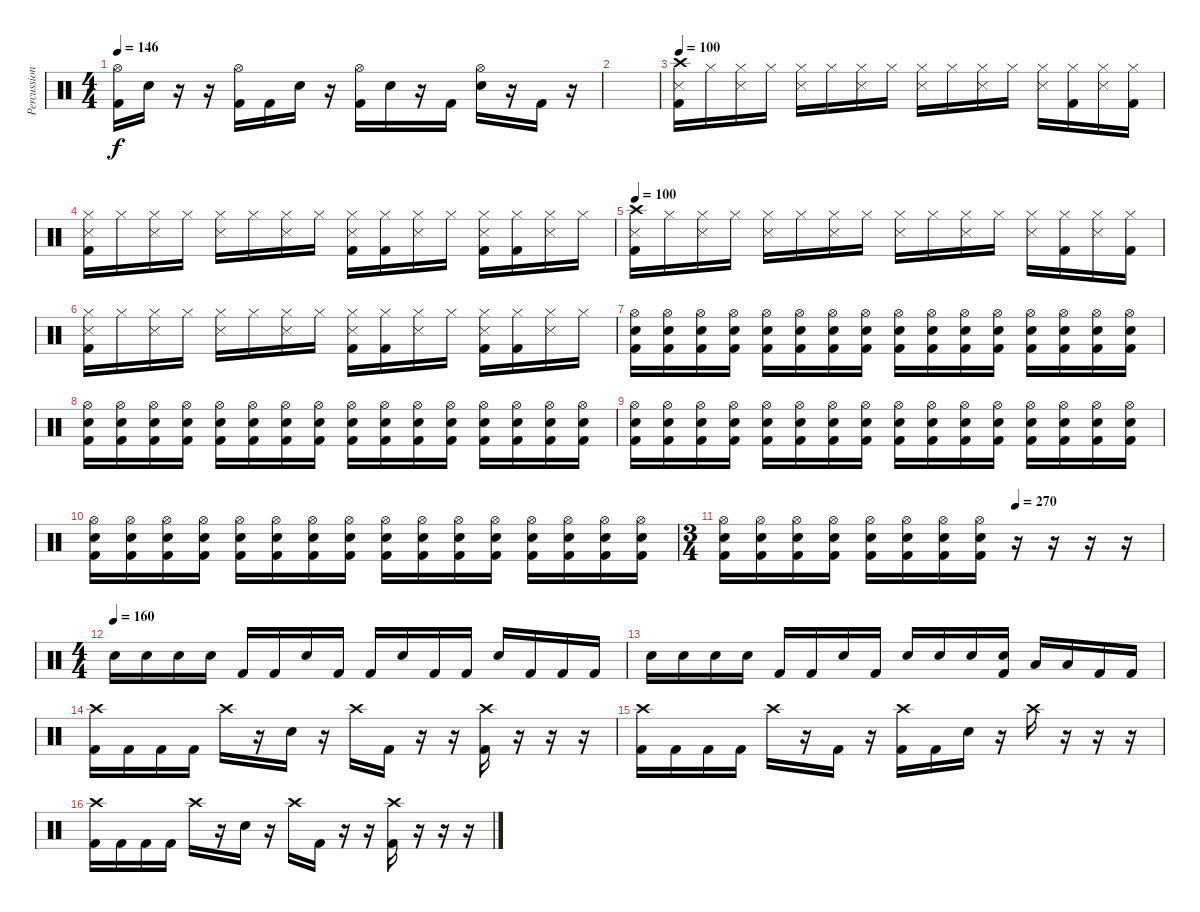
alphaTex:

\track ("Percussion" "Percussion") {instrument percussion}
\staff {score}
\articulation defaults
\ts (4 4)
\tempo 146
\clef neutral
\ks c
("Hi-Hat (open)" "Kick (hit) 2").16{dy f} "Electric Snare (hit)".16 r.16 r.16 ("Hi-Hat (open)" "Kick (hit) 2").16 "Kick (hit) 2".16 "Electric Snare (hit)".16 r.16 ("Hi-Hat (open)" "Kick (hit) 2").16 "Electric Snare (hit)".16 r.16 "Kick (hit) 2".16 ("Hi-Hat (open)" "Electric Snare (hit)").16 r.16 "Kick (hit) 2".16 r.16 |
|
\tempo 100
("Crash high (hit)" "Snare (side stick) 3" "Kick (hit) 2").16 "Hi-Hat (closed)".16 ("Hi-Hat (closed)" "Snare (side stick) 3").16 "Hi-Hat (closed)".16 ("Hi-Hat (closed)" "Snare (side stick) 3").16 "Hi-Hat (closed)".16 ("Hi-Hat (closed)" "Snare (side stick) 3").16 "Hi-Hat (closed)".16 ("Hi-Hat (closed)" "Snare (side stick) 3").16 "Hi-Hat (closed)".16 ("Hi-Hat (closed)" "Snare (side stick) 3").16 "Hi-Hat (closed)".16 ("Hi-Hat (closed)" "Snare (side stick) 3").16 ("Hi-Hat (closed)" "Kick (hit) 2").16 ("Hi-Hat (closed)" "Snare (side stick) 3").16 ("Hi-Hat (closed)" "Kick (hit) 2").16 |
("Hi-Hat (closed)" "Snare (side stick) 3" "Kick (hit) 2").16 "Hi-Hat (closed)".16 ("Hi-Hat (closed)" "Snare (side stick) 3").16 "Hi-Hat (closed)".16 ("Hi-Hat (closed)" "Snare (side stick) 3").16 "Hi-Hat (closed)".16 ("Hi-Hat (closed)" "Snare (side stick) 3").16 "Hi-Hat (closed)".16 ("Hi-Hat (closed)" "Snare (side stick) 3" "Kick (hit) 2").16 ("Hi-Hat (closed)" "Kick (hit) 2").16 ("Hi-Hat (closed)" "Snare (side stick) 3").16 "Hi-Hat (closed)".16 ("Hi-Hat (closed)" "Snare (side stick) 3" "Kick (hit) 2").16 ("Hi-Hat (closed)" "Kick (hit) 2").16 ("Hi-Hat (closed)" "Snare (side stick) 3").16 "Hi-Hat (closed)".16 |
\tempo 100
("Crash high (hit)" "Snare (side stick) 3" "Kick (hit) 2").16 "Hi-Hat (closed)".16 ("Hi-Hat (closed)" "Snare (side stick) 3").16 "Hi-Hat (closed)".16 ("Hi-Hat (closed)" "Snare (side stick) 3").16 "Hi-Hat (closed)".16 ("Hi-Hat (closed)" "Snare (side stick) 3").16 "Hi-Hat (closed)".16 ("Hi-Hat (closed)" "Snare (side stick) 3").16 "Hi-Hat (closed)".16 ("Hi-Hat (closed)" "Snare (side stick) 3").16 "Hi-Hat (closed)".16 ("Hi-Hat (closed)" "Snare (side stick) 3").16 ("Hi-Hat (closed)" "Kick (hit) 2").16 ("Hi-Hat (closed)" "Snare (side stick) 3").16 ("Hi-Hat (closed)" "Kick (hit) 2").16 |
("Hi-Hat (closed)" "Snare (side stick) 3" "Kick (hit) 2").16 "Hi-Hat (closed)".16 ("Hi-Hat (closed)" "Snare (side stick) 3").16 "Hi-Hat (closed)".16 ("Hi-Hat (closed)" "Snare (side stick) 3").16 "Hi-Hat (closed)".16 ("Hi-Hat (closed)" "Snare (side stick) 3").16 "Hi-Hat (closed)".16 ("Hi-Hat (closed)" "Snare (side stick) 3" "Kick (hit) 2").16 ("Hi-Hat (closed)" "Kick (hit) 2").16 ("Hi-Hat (closed)" "Snare (side stick) 3").16 "Hi-Hat (closed)".16 ("Hi-Hat (closed)" "Snare (side stick) 3" "Kick (hit) 2").16 ("Hi-Hat (closed)" "Kick (hit) 2").16 ("Hi-Hat (closed)" "Snare (side stick) 3").16 "Hi-Hat (closed)".16 |
("Hi-Hat (open)" "Electric Snare (hit)" "Kick (hit) 2").16 ("Hi-Hat (open)" "Electric Snare (hit)" "Kick (hit) 2").16 ("Hi-Hat (open)" "Electric Snare (hit)" "Kick (hit) 2").16 ("Hi-Hat (open)" "Electric Snare (hit)" "Kick (hit) 2").16 ("Hi-Hat (open)" "Electric Snare (hit)" "Kick (hit) 2").16 ("Hi-Hat (open)" "Electric Snare (hit)" "Kick (hit) 2").16 ("Hi-Hat (open)" "Electric Snare (hit)" "Kick (hit) 2").16 ("Hi-Hat (open)" "Electric Snare (hit)" "Kick (hit) 2").16 ("Hi-Hat (open)" "Electric Snare (hit)" "Kick (hit) 2").16 ("Hi-Hat (open)" "Electric Snare (hit)" "Kick (hit) 2").16 ("Hi-Hat (open)" "Electric Snare (hit)" "Kick (hit) 2").16 ("Hi-Hat (open)" "Electric Snare (hit)" "Kick (hit) 2").16 ("Hi-Hat (open)" "Electric Snare (hit)" "Kick (hit) 2").16 ("Hi-Hat (open)" "Electric Snare (hit)" "Kick (hit) 2").16 ("Hi-Hat (open)" "Electric Snare (hit)" "Kick (hit) 2").16 ("Hi-Hat (open)" "Electric Snare (hit)" "Kick (hit) 2").16 |
("Hi-Hat (open)" "Electric Snare (hit)" "Kick (hit) 2").16 ("Hi-Hat (open)" "Electric Snare (hit)" "Kick (hit) 2").16 ("Hi-Hat (open)" "Electric Snare (hit)" "Kick (hit) 2").16 ("Hi-Hat (open)" "Electric Snare (hit)" "Kick (hit) 2").16 ("Hi-Hat (open)" "Electric Snare (hit)" "Kick (hit) 2").16 ("Hi-Hat (open)" "Electric Snare (hit)" "Kick (hit) 2").16 ("Hi-Hat (open)" "Electric Snare (hit)" "Kick (hit) 2").16 ("Hi-Hat (open)" "Electric Snare (hit)" "Kick (hit) 2").16 ("Hi-Hat (open)" "Electric Snare (hit)" "Kick (hit) 2").16 ("Hi-Hat (open)" "Electric Snare (hit)" "Kick (hit) 2").16 ("Hi-Hat (open)" "Electric Snare (hit)" "Kick (hit) 2").16 ("Hi-Hat (open)" "Electric Snare (hit)" "Kick (hit) 2").16 ("Hi-Hat (open)" "Electric Snare (hit)" "Kick (hit) 2").16 ("Hi-Hat (open)" "Electric Snare (hit)" "Kick (hit) 2").16 ("Hi-Hat (open)" "Electric Snare (hit)" "Kick (hit) 2").16 ("Hi-Hat (open)" "Electric Snare (hit)" "Kick (hit) 2").16 |
("Hi-Hat (open)" "Electric Snare (hit)" "Kick (hit) 2").16 ("Hi-Hat (open)" "Electric Snare (hit)" "Kick (hit) 2").16 ("Hi-Hat (open)" "Electric Snare (hit)" "Kick (hit) 2").16 ("Hi-Hat (open)" "Electric Snare (hit)" "Kick (hit) 2").16 ("Hi-Hat (open)" "Electric Snare (hit)" "Kick (hit) 2").16 ("Hi-Hat (open)" "Electric Snare (hit)" "Kick (hit) 2").16 ("Hi-Hat (open)" "Electric Snare (hit)" "Kick (hit) 2").16 ("Hi-Hat (open)" "Electric Snare (hit)" "Kick (hit) 2").16 ("Hi-Hat (open)" "Electric Snare (hit)" "Kick (hit) 2").16 ("Hi-Hat (open)" "Electric Snare (hit)" "Kick (hit) 2").16 ("Hi-Hat (open)" "Electric Snare (hit)" "Kick (hit) 2").16 ("Hi-Hat (open)" "Electric Snare (hit)" "Kick (hit) 2").16 ("Hi-Hat (open)" "Electric Snare (hit)" "Kick (hit) 2").16 ("Hi-Hat (open)" "Electric Snare (hit)" "Kick (hit) 2").16 ("Hi-Hat (open)" "Electric Snare (hit)" "Kick (hit) 2").16 ("Hi-Hat (open)" "Electric Snare (hit)" "Kick (hit) 2").16 |
("Hi-Hat (open)" "Electric Snare (hit)" "Kick (hit) 2").16 ("Hi-Hat (open)" "Electric Snare (hit)" "Kick (hit) 2").16 ("Hi-Hat (open)" "Electric Snare (hit)" "Kick (hit) 2").16 ("Hi-Hat (open)" "Electric Snare (hit)" "Kick (hit) 2").16 ("Hi-Hat (open)" "Electric Snare (hit)" "Kick (hit) 2").16 ("Hi-Hat (open)" "Electric Snare (hit)" "Kick (hit) 2").16 ("Hi-Hat (open)" "Electric Snare (hit)" "Kick (hit) 2").16 ("Hi-Hat (open)" "Electric Snare (hit)" "Kick (hit) 2").16 ("Hi-Hat (open)" "Electric Snare (hit)" "Kick (hit) 2").16 ("Hi-Hat (open)" "Electric Snare (hit)" "Kick (hit) 2").16 ("Hi-Hat (open)" "Electric Snare (hit)" "Kick (hit) 2").16 ("Hi-Hat (open)" "Electric Snare (hit)" "Kick (hit) 2").16 ("Hi-Hat (open)" "Electric Snare (hit)" "Kick (hit) 2").16 ("Hi-Hat (open)" "Electric Snare (hit)" "Kick (hit) 2").16 ("Hi-Hat (open)" "Electric Snare (hit)" "Kick (hit) 2").16 ("Hi-Hat (open)" "Electric Snare (hit)" "Kick (hit) 2").16 |
\ts (3 4)
\tempo (270 0.6666666666666666)
("Hi-Hat (open)" "Electric Snare (hit)" "Kick (hit) 2").16 ("Hi-Hat (open)" "Electric Snare (hit)" "Kick (hit) 2").16 ("Hi-Hat (open)" "Electric Snare (hit)" "Kick (hit) 2").16 ("Hi-Hat (open)" "Electric Snare (hit)" "Kick (hit) 2").16 ("Hi-Hat (open)" "Electric Snare (hit)" "Kick (hit) 2").16 ("Hi-Hat (open)" "Electric Snare (hit)" "Kick (hit) 2").16 ("Hi-Hat (open)" "Electric Snare (hit)" "Kick (hit) 2").16 ("Hi-Hat (open)" "Electric Snare (hit)" "Kick (hit) 2").16 r.16 r.16 r.16 r.16 |
\ts (4 4)
\tempo (160)
"Electric Snare (hit)".16 "Electric Snare (hit)".16 "Electric Snare (hit)".16 "Electric Snare (hit)".16 "Kick (hit) 2".16 "Kick (hit) 2".16 "Electric Snare (hit)".16 "Kick (hit) 2".16 "Kick (hit) 2".16 "Electric Snare (hit)".16 "Kick (hit) 2".16 "Kick (hit) 2".16 "Electric Snare (hit)".16 "Kick (hit) 2".16 "Kick (hit) 2".16 "Kick (hit) 2".16 |
"Electric Snare (hit)".16 "Electric Snare (hit)".16 "Electric Snare (hit)".16 "Electric Snare (hit)".16 "Kick (hit) 2".16 "Kick (hit) 2".16 "Electric Snare (hit)".16 "Kick (hit) 2".16 "Electric Snare (hit)".16 "Electric Snare (hit)".16 "Electric Snare (hit)".16 ("Electric Snare (hit)" "Kick (hit) 2").16 "Low Tom (hit)".16 "Low Tom (hit)".16 "Kick (hit) 2".16 "Kick (hit) 2".16 |
("Crash high (hit)" "Kick (hit) 2").16 "Kick (hit) 2".16 "Kick (hit) 2".16 "Kick (hit) 2".16 "Crash high (hit)".16 r.16 "Electric Snare (hit)".16 r.16 "Crash high (hit)".16 "Kick (hit) 2".16 r.16 r.16 ("Crash high (hit)" "Kick (hit) 2").16 r.16 r.16 r.16 |
("Crash high (hit)" "Kick (hit) 2").16 "Kick (hit) 2".16 "Kick (hit) 2".16 "Kick (hit) 2".16 "Crash high (hit)".16 r.16 "Kick (hit) 2".16 r.16 ("Crash high (hit)" "Kick (hit) 2").16 "Kick (hit) 2".16 "Electric Snare (hit)".16 r.16 "Crash high (hit)".16 r.16 r.16 r.16 |
("Crash high (hit)" "Kick (hit) 2").16 "Kick (hit) 2".16 "Kick (hit) 2".16 "Kick (hit) 2".16 "Crash high (hit)".16 r.16 "Electric Snare (hit)".16 r.16 "Crash high (hit)".16 "Kick (hit) 2".16 r.16 r.16 ("Crash high (hit)" "Kick (hit) 2").16 r.16 r.16 r.16
